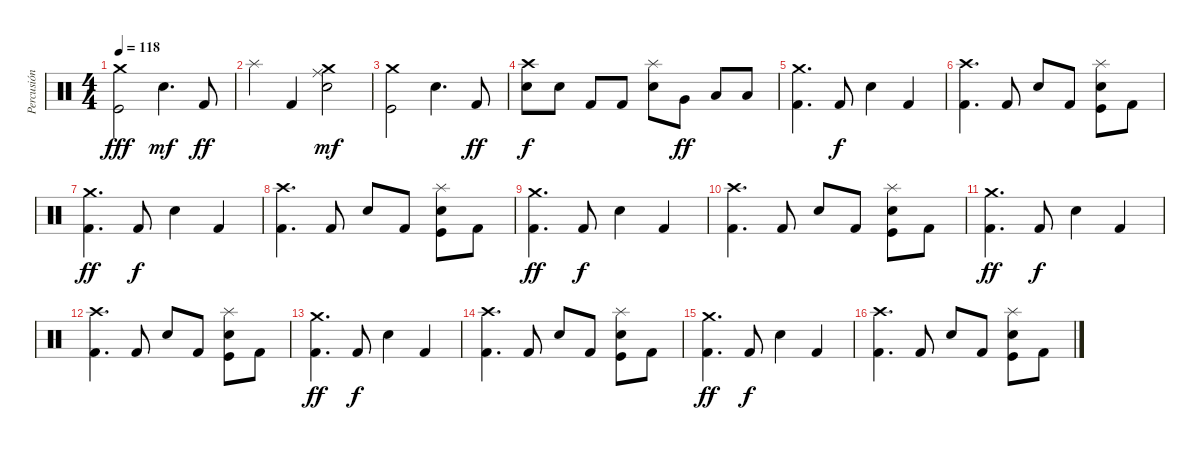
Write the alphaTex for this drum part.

\track ("Percusión" "Percusión") {instrument percussion}
\staff {score}
\articulation defaults
\ts (4 4)
\tempo 118
\clef neutral
\ks c
("Kick (hit)" "Crash medium (hit)").2{dy fff} "Snare (hit) 2".4{d dy mf} "Kick (hit) 2".8{dy ff} |
"Splash (hit)".4 "Kick (hit) 2".4 ("Ride (middle)" "Crash medium (hit)" "Snare (hit) 2").2{dy mf} |
("Kick (hit)" "Crash medium (hit)").2 "Snare (hit) 2".4{d} "Kick (hit) 2".8{dy ff} |
("Snare (hit) 2" "Crash high (hit)").8{dy f} "Snare (hit) 2".8 "Kick (hit) 2".8 "Kick (hit) 2".8 ("Snare (hit) 2" "Splash (hit)").8 "Very Low Tom (hit)".8{dy ff} "Low Floor Tom (hit)".8 "Low Floor Tom (hit)".8 |
("Kick (hit) 2" "Crash medium (hit)").4{d} "Kick (hit) 2".8{dy f} "Snare (hit) 2".4 "Kick (hit) 2".4 |
("Kick (hit) 2" "Crash high (hit)").4{d} "Kick (hit) 2".8 "Snare (hit) 2".8 "Kick (hit) 2".8 ("Snare (hit) 2" "Kick (hit)" "Splash (hit)").8 "Kick (hit) 2".8 |
("Kick (hit) 2" "Crash medium (hit)").4{d dy ff} "Kick (hit) 2".8{dy f} "Snare (hit) 2".4 "Kick (hit) 2".4 |
("Kick (hit) 2" "Crash high (hit)").4{d} "Kick (hit) 2".8 "Snare (hit) 2".8 "Kick (hit) 2".8 ("Snare (hit) 2" "Kick (hit)" "Splash (hit)").8 "Kick (hit) 2".8 |
("Kick (hit) 2" "Crash medium (hit)").4{d dy ff} "Kick (hit) 2".8{dy f} "Snare (hit) 2".4 "Kick (hit) 2".4 |
("Kick (hit) 2" "Crash high (hit)").4{d} "Kick (hit) 2".8 "Snare (hit) 2".8 "Kick (hit) 2".8 ("Snare (hit) 2" "Kick (hit)" "Splash (hit)").8 "Kick (hit) 2".8 |
("Kick (hit) 2" "Crash medium (hit)").4{d dy ff} "Kick (hit) 2".8{dy f} "Snare (hit) 2".4 "Kick (hit) 2".4 |
("Kick (hit) 2" "Crash high (hit)").4{d} "Kick (hit) 2".8 "Snare (hit) 2".8 "Kick (hit) 2".8 ("Snare (hit) 2" "Kick (hit)" "Splash (hit)").8 "Kick (hit) 2".8 |
("Kick (hit) 2" "Crash medium (hit)").4{d dy ff} "Kick (hit) 2".8{dy f} "Snare (hit) 2".4 "Kick (hit) 2".4 |
("Kick (hit) 2" "Crash high (hit)").4{d} "Kick (hit) 2".8 "Snare (hit) 2".8 "Kick (hit) 2".8 ("Snare (hit) 2" "Kick (hit)" "Splash (hit)").8 "Kick (hit) 2".8 |
("Kick (hit) 2" "Crash medium (hit)").4{d dy ff} "Kick (hit) 2".8{dy f} "Snare (hit) 2".4 "Kick (hit) 2".4 |
("Kick (hit) 2" "Crash high (hit)").4{d} "Kick (hit) 2".8 "Snare (hit) 2".8 "Kick (hit) 2".8 ("Snare (hit) 2" "Kick (hit)" "Splash (hit)").8 "Kick (hit) 2".8
